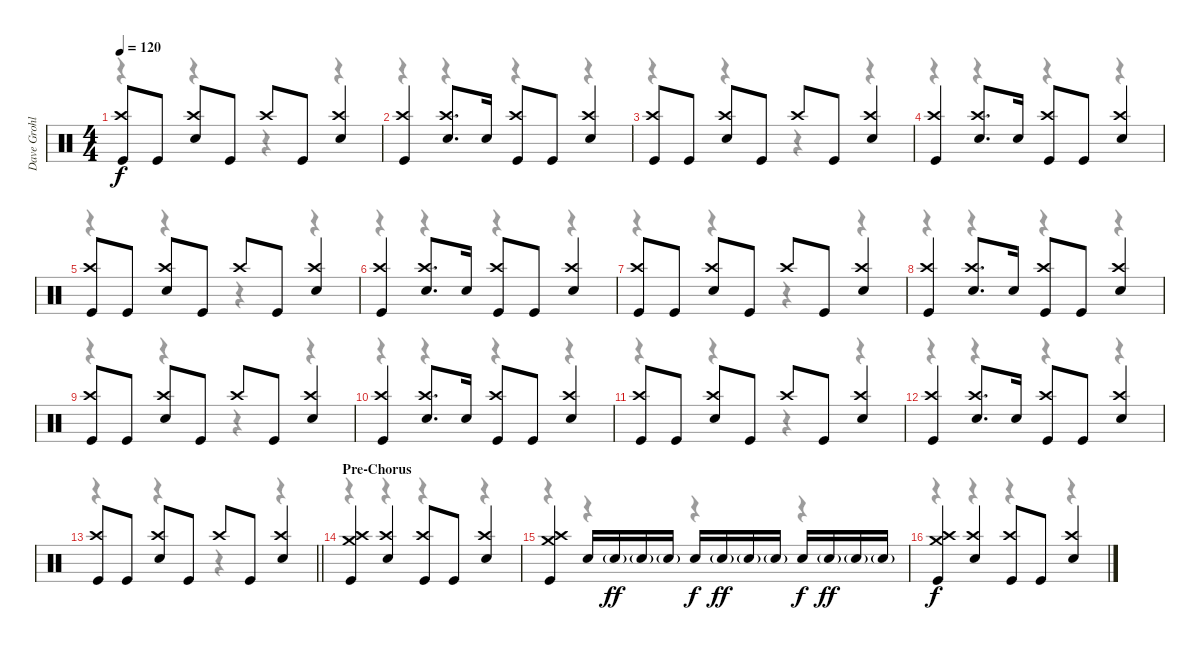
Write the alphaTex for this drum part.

\track ("Dave Grohl" "Dave Grohl") {instrument percussion}
\staff {score}
\articulation defaults
\voice
\ts (4 4)
\tempo 120
\clef neutral
\ks c
("Crash high (hit)" "Kick (hit)").8{dy f} "Kick (hit)".8 ("Crash high (hit)" "Snare (hit) 2").8 "Kick (hit)".8 "Crash high (hit)".8 "Kick (hit)".8 ("Crash high (hit)" "Snare (hit) 2").4 |
("Crash high (hit)" "Kick (hit)").4 ("Crash high (hit)" "Snare (hit) 2").8{d} "Snare (hit) 2".16 ("Crash high (hit)" "Kick (hit)").8 "Kick (hit)".8 ("Crash high (hit)" "Snare (hit) 2").4 |
("Crash high (hit)" "Kick (hit)").8 "Kick (hit)".8 ("Crash high (hit)" "Snare (hit) 2").8 "Kick (hit)".8 "Crash high (hit)".8 "Kick (hit)".8 ("Crash high (hit)" "Snare (hit) 2").4 |
("Crash high (hit)" "Kick (hit)").4 ("Crash high (hit)" "Snare (hit) 2").8{d} "Snare (hit) 2".16 ("Crash high (hit)" "Kick (hit)").8 "Kick (hit)".8 ("Crash high (hit)" "Snare (hit) 2").4 |
("Crash high (hit)" "Kick (hit)").8 "Kick (hit)".8 ("Crash high (hit)" "Snare (hit) 2").8 "Kick (hit)".8 "Crash high (hit)".8 "Kick (hit)".8 ("Crash high (hit)" "Snare (hit) 2").4 |
("Crash high (hit)" "Kick (hit)").4 ("Crash high (hit)" "Snare (hit) 2").8{d} "Snare (hit) 2".16 ("Crash high (hit)" "Kick (hit)").8 "Kick (hit)".8 ("Crash high (hit)" "Snare (hit) 2").4 |
("Crash high (hit)" "Kick (hit)").8 "Kick (hit)".8 ("Crash high (hit)" "Snare (hit) 2").8 "Kick (hit)".8 "Crash high (hit)".8 "Kick (hit)".8 ("Crash high (hit)" "Snare (hit) 2").4 |
("Crash high (hit)" "Kick (hit)").4 ("Crash high (hit)" "Snare (hit) 2").8{d} "Snare (hit) 2".16 ("Crash high (hit)" "Kick (hit)").8 "Kick (hit)".8 ("Crash high (hit)" "Snare (hit) 2").4 |
("Crash high (hit)" "Kick (hit)").8 "Kick (hit)".8 ("Crash high (hit)" "Snare (hit) 2").8 "Kick (hit)".8 "Crash high (hit)".8 "Kick (hit)".8 ("Crash high (hit)" "Snare (hit) 2").4 |
("Crash high (hit)" "Kick (hit)").4 ("Crash high (hit)" "Snare (hit) 2").8{d} "Snare (hit) 2".16 ("Crash high (hit)" "Kick (hit)").8 "Kick (hit)".8 ("Crash high (hit)" "Snare (hit) 2").4 |
("Crash high (hit)" "Kick (hit)").8 "Kick (hit)".8 ("Crash high (hit)" "Snare (hit) 2").8 "Kick (hit)".8 "Crash high (hit)".8 "Kick (hit)".8 ("Crash high (hit)" "Snare (hit) 2").4 |
("Crash high (hit)" "Kick (hit)").4 ("Crash high (hit)" "Snare (hit) 2").8{d} "Snare (hit) 2".16 ("Crash high (hit)" "Kick (hit)").8 "Kick (hit)".8 ("Crash high (hit)" "Snare (hit) 2").4 |
\barLineRight lightlight
("Crash high (hit)" "Kick (hit)").8 "Kick (hit)".8 ("Crash high (hit)" "Snare (hit) 2").8 "Kick (hit)".8 "Crash high (hit)".8 "Kick (hit)".8 ("Crash high (hit)" "Snare (hit) 2").4 |
\section ("" "Pre-Chorus")
("Crash medium (hit)" "Crash high (hit)" "Kick (hit)").4 ("Crash high (hit)" "Snare (hit) 2").4 ("Crash high (hit)" "Kick (hit)").8 "Kick (hit)".8 ("Crash high (hit)" "Snare (hit) 2").4 |
("Crash medium (hit)" "Crash high (hit)" "Kick (hit)").4 "Snare (hit) 2".16 "Snare (hit) 2"{g}.16{dy ff} "Snare (hit) 2"{g}.16 "Snare (hit) 2"{g}.16 "Snare (hit) 2".16{dy f} "Snare (hit) 2"{g}.16{dy ff} "Snare (hit) 2"{g}.16 "Snare (hit) 2"{g}.16 "Snare (hit) 2".16{dy f} "Snare (hit) 2"{g}.16{dy ff} "Snare (hit) 2"{g}.16 "Snare (hit) 2"{g}.16 |
("Crash medium (hit)" "Crash high (hit)" "Kick (hit)").4{dy f} ("Crash high (hit)" "Snare (hit) 2").4 ("Crash high (hit)" "Kick (hit)").8 "Kick (hit)".8 ("Crash high (hit)" "Snare (hit) 2").4
\voice
\clef neutral
\ottava regular
\simile none
\ks c
r.4{dy f} r.4 r.4 r.4 |
r.4 r.4 r.4 r.4 |
r.4 r.4 r.4 r.4 |
r.4 r.4 r.4 r.4 |
r.4 r.4 r.4 r.4 |
r.4 r.4 r.4 r.4 |
r.4 r.4 r.4 r.4 |
r.4 r.4 r.4 r.4 |
r.4 r.4 r.4 r.4 |
r.4 r.4 r.4 r.4 |
r.4 r.4 r.4 r.4 |
r.4 r.4 r.4 r.4 |
\barLineRight lightlight
r.4 r.4 r.4 r.4 |
r.4 r.4 r.4 r.4 |
r.4 r.4 r.4 r.4 |
r.4 r.4 r.4 r.4
